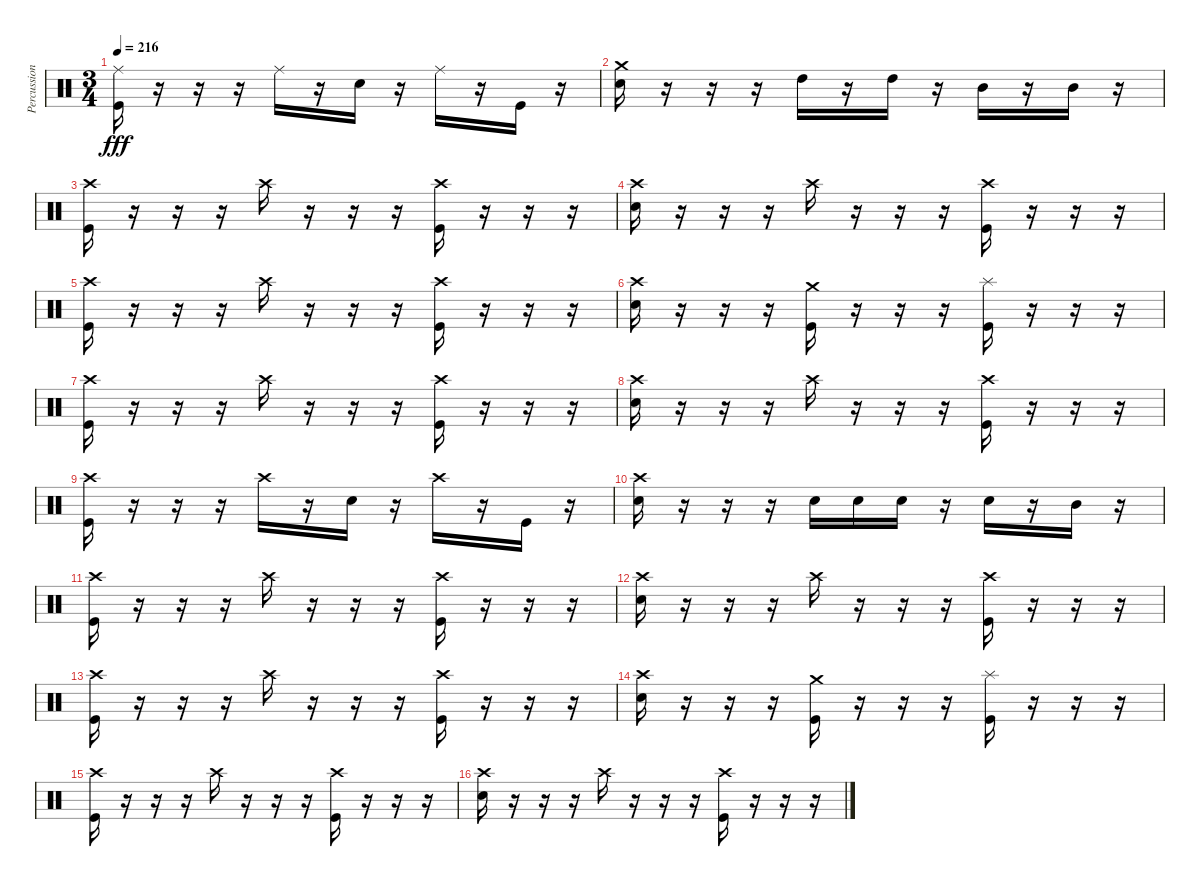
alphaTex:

\track ("Percussion" "Percussion") {instrument percussion}
\staff {score}
\articulation defaults
\ts (3 4)
\tempo 216
\clef neutral
\ks c
("Ride (middle)" "Kick (hit)").16{dy fff} r.16 r.16 r.16 "Ride (middle)".16 r.16 "Electric Snare (hit)".16 r.16 "Ride (middle)".16 r.16 "Kick (hit)".16 r.16 |
("Crash medium (hit)" "Electric Snare (hit)").16 r.16 r.16 r.16 "High Tom (hit)".16 r.16 "High Tom (hit)".16 r.16 "Mid Tom (hit)".16 r.16 "Mid Tom (hit)".16 r.16 |
("Crash high (hit)" "Kick (hit)").16 r.16 r.16 r.16 "Crash high (hit)".16 r.16 r.16 r.16 ("Crash high (hit)" "Kick (hit)").16 r.16 r.16 r.16 |
("Crash high (hit)" "Electric Snare (hit)").16 r.16 r.16 r.16 "Crash high (hit)".16 r.16 r.16 r.16 ("Crash high (hit)" "Kick (hit)").16 r.16 r.16 r.16 |
("Crash high (hit)" "Kick (hit)").16 r.16 r.16 r.16 "Crash high (hit)".16 r.16 r.16 r.16 ("Crash high (hit)" "Kick (hit)").16 r.16 r.16 r.16 |
("Crash high (hit)" "Electric Snare (hit)").16 r.16 r.16 r.16 ("Crash medium (hit)" "Kick (hit)").16 r.16 r.16 r.16 ("Splash (hit)" "Kick (hit)").16 r.16 r.16 r.16 |
("Crash high (hit)" "Kick (hit)").16 r.16 r.16 r.16 "Crash high (hit)".16 r.16 r.16 r.16 ("Crash high (hit)" "Kick (hit)").16 r.16 r.16 r.16 |
("Crash high (hit)" "Electric Snare (hit)").16 r.16 r.16 r.16 "Crash high (hit)".16 r.16 r.16 r.16 ("Crash high (hit)" "Kick (hit)").16 r.16 r.16 r.16 |
("Crash high (hit)" "Kick (hit)").16 r.16 r.16 r.16 "Crash high (hit)".16 r.16 "Electric Snare (hit)".16 r.16 "Crash high (hit)".16 r.16 "Kick (hit)".16 r.16 |
("Crash high (hit)" "Electric Snare (hit)").16 r.16 r.16 r.16 "Electric Snare (hit)".16 "Electric Snare (hit)".16 "Electric Snare (hit)".16 r.16 "Electric Snare (hit)".16 r.16 "Mid Tom (hit)".16 r.16 |
("Crash high (hit)" "Kick (hit)").16 r.16 r.16 r.16 "Crash high (hit)".16 r.16 r.16 r.16 ("Crash high (hit)" "Kick (hit)").16 r.16 r.16 r.16 |
("Crash high (hit)" "Electric Snare (hit)").16 r.16 r.16 r.16 "Crash high (hit)".16 r.16 r.16 r.16 ("Crash high (hit)" "Kick (hit)").16 r.16 r.16 r.16 |
("Crash high (hit)" "Kick (hit)").16 r.16 r.16 r.16 "Crash high (hit)".16 r.16 r.16 r.16 ("Crash high (hit)" "Kick (hit)").16 r.16 r.16 r.16 |
("Crash high (hit)" "Electric Snare (hit)").16 r.16 r.16 r.16 ("Crash medium (hit)" "Kick (hit)").16 r.16 r.16 r.16 ("Splash (hit)" "Kick (hit)").16 r.16 r.16 r.16 |
("Crash high (hit)" "Kick (hit)").16 r.16 r.16 r.16 "Crash high (hit)".16 r.16 r.16 r.16 ("Crash high (hit)" "Kick (hit)").16 r.16 r.16 r.16 |
("Crash high (hit)" "Electric Snare (hit)").16 r.16 r.16 r.16 "Crash high (hit)".16 r.16 r.16 r.16 ("Crash high (hit)" "Kick (hit)").16 r.16 r.16 r.16
